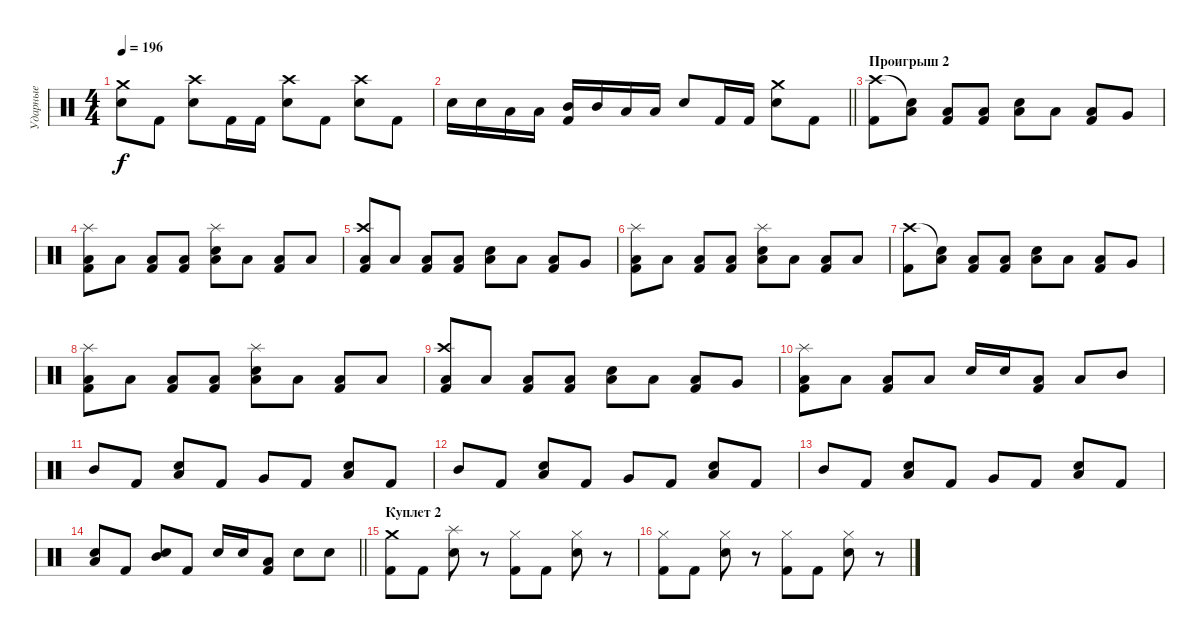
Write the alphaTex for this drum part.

\track ("Ударные" "Ударные") {instrument percussion}
\staff {score}
\articulation defaults
\ts (4 4)
\tempo 196
\clef neutral
\ks c
("Crash medium (hit)" "Snare (hit) 2").8{dy f} "Kick (hit) 2".8 ("Crash high (hit)" "Snare (hit) 2").8 "Kick (hit) 2".16 "Kick (hit) 2".16 ("Crash high (hit)" "Snare (hit) 2").8 "Kick (hit) 2".8 ("Crash high (hit)" "Snare (hit) 2").8 "Kick (hit) 2".8 |
\barLineRight lightlight "Snare (hit) 2".16 "Snare (hit) 2".16 "Low Tom (hit)".16 "Low Tom (hit)".16
("Mid Tom (hit)" "Kick (hit) 2").16 "Mid Tom (hit)".16 "Low Tom (hit)".16 "Low Tom (hit)".16 "Snare (hit) 2".8 "Kick (hit) 2".16 "Kick (hit) 2".16 ("Crash medium (hit)" "Snare (hit) 2").8 "Kick (hit) 2".8 |
\section ("" "Проигрыш 2")
("Crash high (hit)" "Kick (hit) 2").8 ("Snare (hit)"{t} "Low Floor Tom (hit)").8 ("Low Floor Tom (hit)" "Kick (hit) 2").8 ("Low Floor Tom (hit)" "Kick (hit) 2").8 ("Low Floor Tom (hit)" "Snare (hit) 2").8 "Low Floor Tom (hit)".8 ("Low Floor Tom (hit)" "Kick (hit) 2").8 "Very Low Tom (hit)".8 |
("Splash (hit)" "Low Floor Tom (hit)" "Kick (hit) 2").8 "Low Floor Tom (hit)".8 ("Low Floor Tom (hit)" "Kick (hit) 2").8 ("Low Floor Tom (hit)" "Kick (hit) 2").8 ("Splash (hit)" "Low Floor Tom (hit)" "Snare (hit) 2").8 "Low Floor Tom (hit)".8 ("Low Floor Tom (hit)" "Kick (hit) 2").8 "Low Floor Tom (hit)".8 |
("Crash high (hit)" "Low Floor Tom (hit)" "Kick (hit) 2").8 "Low Floor Tom (hit)".8 ("Low Floor Tom (hit)" "Kick (hit) 2").8 ("Low Floor Tom (hit)" "Kick (hit) 2").8 ("Low Floor Tom (hit)" "Snare (hit) 2").8 "Low Floor Tom (hit)".8 ("Low Floor Tom (hit)" "Kick (hit) 2").8 "Very Low Tom (hit)".8 |
("Splash (hit)" "Low Floor Tom (hit)" "Kick (hit) 2").8 "Low Floor Tom (hit)".8 ("Low Floor Tom (hit)" "Kick (hit) 2").8 ("Low Floor Tom (hit)" "Kick (hit) 2").8 ("Splash (hit)" "Low Floor Tom (hit)" "Snare (hit) 2").8 "Low Floor Tom (hit)".8 ("Low Floor Tom (hit)" "Kick (hit) 2").8 "Low Floor Tom (hit)".8 |
("Crash high (hit)" "Kick (hit) 2").8 ("Snare (hit)"{t} "Low Floor Tom (hit)").8 ("Low Floor Tom (hit)" "Kick (hit) 2").8 ("Low Floor Tom (hit)" "Kick (hit) 2").8 ("Low Floor Tom (hit)" "Snare (hit) 2").8 "Low Floor Tom (hit)".8 ("Low Floor Tom (hit)" "Kick (hit) 2").8 "Very Low Tom (hit)".8 |
("Splash (hit)" "Low Floor Tom (hit)" "Kick (hit) 2").8 "Low Floor Tom (hit)".8 ("Low Floor Tom (hit)" "Kick (hit) 2").8 ("Low Floor Tom (hit)" "Kick (hit) 2").8 ("Splash (hit)" "Low Floor Tom (hit)" "Snare (hit) 2").8 "Low Floor Tom (hit)".8 ("Low Floor Tom (hit)" "Kick (hit) 2").8 "Low Floor Tom (hit)".8 |
("Crash high (hit)" "Low Floor Tom (hit)" "Kick (hit) 2").8 "Low Floor Tom (hit)".8 ("Low Floor Tom (hit)" "Kick (hit) 2").8 ("Low Floor Tom (hit)" "Kick (hit) 2").8 ("Low Floor Tom (hit)" "Snare (hit) 2").8 "Low Floor Tom (hit)".8 ("Low Floor Tom (hit)" "Kick (hit) 2").8 "Very Low Tom (hit)".8 |
("Splash (hit)" "Low Floor Tom (hit)" "Kick (hit) 2").8 "Low Floor Tom (hit)".8 ("Low Floor Tom (hit)" "Kick (hit) 2").8 "Low Floor Tom (hit)".8 "Snare (hit) 2".16 "Snare (hit) 2".16 ("Low Tom (hit)" "Kick (hit) 2").8 "Low Tom (hit)".8 "Mid Tom (hit)".8 |
"Mid Tom (hit)".8 "Kick (hit) 2".8 ("Low Tom (hit)" "Snare (hit) 2").8 "Kick (hit) 2".8 "Very Low Tom (hit)".8 "Kick (hit) 2".8 ("Low Floor Tom (hit)" "Snare (hit) 2").8 "Kick (hit) 2".8 |
"Mid Tom (hit)".8 "Kick (hit) 2".8 ("Low Tom (hit)" "Snare (hit) 2").8 "Kick (hit) 2".8 "Very Low Tom (hit)".8 "Kick (hit) 2".8 ("Low Floor Tom (hit)" "Snare (hit) 2").8 "Kick (hit) 2".8 |
"Mid Tom (hit)".8 "Kick (hit) 2".8 ("Low Tom (hit)" "Snare (hit) 2").8 "Kick (hit) 2".8 "Very Low Tom (hit)".8 "Kick (hit) 2".8 ("Low Floor Tom (hit)" "Snare (hit) 2").8 "Kick (hit) 2".8 |
\barLineRight lightlight
("Low Tom (hit)" "Snare (hit) 2").8 "Kick (hit) 2".8 ("Mid Tom (hit)" "Snare (hit) 2").8 "Kick (hit) 2".8 "Snare (hit) 2".16 "Snare (hit) 2".16 ("Low Tom (hit)" "Kick (hit) 2").8 "Snare (hit) 2".8 "Snare (hit) 2".8 |
\section ("" "Куплет 2")
("Crash medium (hit)" "Kick (hit) 2").8 "Kick (hit) 2".8 ("Splash (hit)" "Snare (hit) 2").8 r.8 ("Hi-Hat (closed)" "Kick (hit) 2").8 "Kick (hit) 2".8 ("Hi-Hat (closed)" "Snare (hit) 2").8 r.8 |
("Hi-Hat (closed)" "Kick (hit) 2").8 "Kick (hit) 2".8 ("Hi-Hat (closed)" "Snare (hit) 2").8 r.8 ("Hi-Hat (closed)" "Kick (hit) 2").8 "Kick (hit) 2".8 ("Hi-Hat (closed)" "Snare (hit) 2").8 r.8
